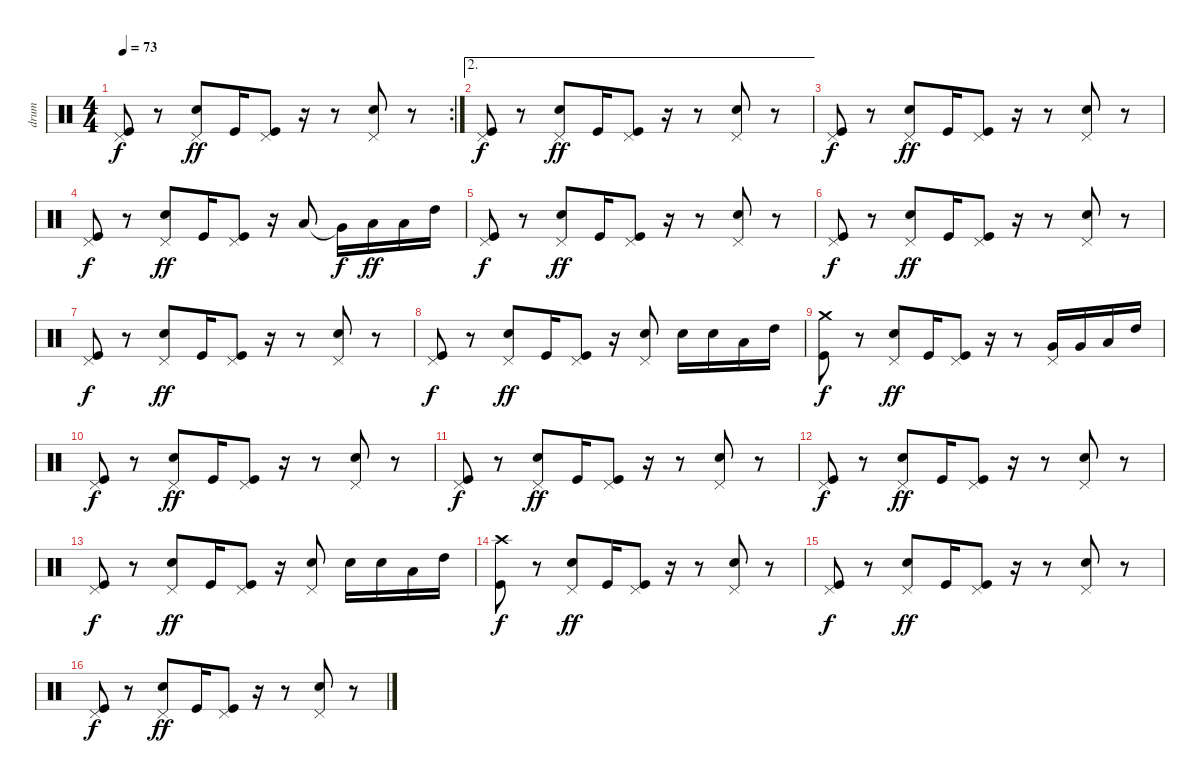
\track ("drum" "drum") {instrument percussion}
\staff {score}
\articulation defaults
\rc 2
\ts (4 4)
\tempo 73
\clef neutral
\ks c
("Pedal Hi-Hat (hit)" "Kick (hit)").8{dy f} r.8 ("Pedal Hi-Hat (hit)" "Snare (hit) 2").8{dy ff} "Kick (hit)".16 ("Pedal Hi-Hat (hit)" "Kick (hit)").8 r.16 r.8 ("Pedal Hi-Hat (hit)" "Snare (hit) 2").8 r.8 |
\ae 2
("Pedal Hi-Hat (hit)" "Kick (hit)").8{dy f} r.8 ("Pedal Hi-Hat (hit)" "Snare (hit) 2").8{dy ff} "Kick (hit)".16 ("Pedal Hi-Hat (hit)" "Kick (hit)").8 r.16 r.8 ("Pedal Hi-Hat (hit)" "Snare (hit) 2").8 r.8 |
("Pedal Hi-Hat (hit)" "Kick (hit)").8{dy f} r.8 ("Pedal Hi-Hat (hit)" "Snare (hit) 2").8{dy ff} "Kick (hit)".16 ("Pedal Hi-Hat (hit)" "Kick (hit)").8 r.16 r.8 ("Pedal Hi-Hat (hit)" "Snare (hit) 2").8 r.8 |
("Pedal Hi-Hat (hit)" "Kick (hit)").8{dy f} r.8 ("Pedal Hi-Hat (hit)" "Snare (hit) 2").8{dy ff} "Kick (hit)".16 ("Pedal Hi-Hat (hit)" "Kick (hit)").8 r.16 "Low Tom (hit)".8 "Very Low Tom (hit)"{t}.16{dy f} "Low Tom (hit)".16{dy ff} "Low Tom (hit)".16 "High Tom (hit)".16 |
("Pedal Hi-Hat (hit)" "Kick (hit)").8{dy f} r.8 ("Pedal Hi-Hat (hit)" "Snare (hit) 2").8{dy ff} "Kick (hit)".16 ("Pedal Hi-Hat (hit)" "Kick (hit)").8 r.16 r.8 ("Pedal Hi-Hat (hit)" "Snare (hit) 2").8 r.8 |
("Pedal Hi-Hat (hit)" "Kick (hit)").8{dy f} r.8 ("Pedal Hi-Hat (hit)" "Snare (hit) 2").8{dy ff} "Kick (hit)".16 ("Pedal Hi-Hat (hit)" "Kick (hit)").8 r.16 r.8 ("Pedal Hi-Hat (hit)" "Snare (hit) 2").8 r.8 |
("Pedal Hi-Hat (hit)" "Kick (hit)").8{dy f} r.8 ("Pedal Hi-Hat (hit)" "Snare (hit) 2").8{dy ff} "Kick (hit)".16 ("Pedal Hi-Hat (hit)" "Kick (hit)").8 r.16 r.8 ("Pedal Hi-Hat (hit)" "Snare (hit) 2").8 r.8 |
("Pedal Hi-Hat (hit)" "Kick (hit)").8{dy f} r.8 ("Pedal Hi-Hat (hit)" "Snare (hit) 2").8{dy ff} "Kick (hit)".16 ("Pedal Hi-Hat (hit)" "Kick (hit)").8 r.16 ("Pedal Hi-Hat (hit)" "Snare (hit) 2").8 "Snare (hit) 2".16 "Snare (hit) 2".16 "Low Tom (hit)".16 "High Tom (hit)".16 |
("Crash medium (hit)" "Kick (hit)").8{dy f} r.8 ("Pedal Hi-Hat (hit)" "Snare (hit) 2").8{dy ff} "Kick (hit)".16 ("Pedal Hi-Hat (hit)" "Kick (hit)").8 r.16 r.8 ("Pedal Hi-Hat (hit)" "Very Low Tom (hit)").16 "Very Low Tom (hit)".16 "Low Tom (hit)".16 "High Tom (hit)".16 |
("Pedal Hi-Hat (hit)" "Kick (hit)").8{dy f} r.8 ("Pedal Hi-Hat (hit)" "Snare (hit) 2").8{dy ff} "Kick (hit)".16 ("Pedal Hi-Hat (hit)" "Kick (hit)").8 r.16 r.8 ("Pedal Hi-Hat (hit)" "Snare (hit) 2").8 r.8 |
("Pedal Hi-Hat (hit)" "Kick (hit)").8{dy f} r.8 ("Pedal Hi-Hat (hit)" "Snare (hit) 2").8{dy ff} "Kick (hit)".16 ("Pedal Hi-Hat (hit)" "Kick (hit)").8 r.16 r.8 ("Pedal Hi-Hat (hit)" "Snare (hit) 2").8 r.8 |
("Pedal Hi-Hat (hit)" "Kick (hit)").8{dy f} r.8 ("Pedal Hi-Hat (hit)" "Snare (hit) 2").8{dy ff} "Kick (hit)".16 ("Pedal Hi-Hat (hit)" "Kick (hit)").8 r.16 r.8 ("Pedal Hi-Hat (hit)" "Snare (hit) 2").8 r.8 |
("Pedal Hi-Hat (hit)" "Kick (hit)").8{dy f} r.8 ("Pedal Hi-Hat (hit)" "Snare (hit) 2").8{dy ff} "Kick (hit)".16 ("Pedal Hi-Hat (hit)" "Kick (hit)").8 r.16 ("Pedal Hi-Hat (hit)" "Snare (hit) 2").8 "Snare (hit) 2".16 "Snare (hit) 2".16 "Low Tom (hit)".16 "High Tom (hit)".16 |
("Crash high (hit)" "Kick (hit)").8{dy f} r.8 ("Pedal Hi-Hat (hit)" "Snare (hit) 2").8{dy ff} "Kick (hit)".16 ("Pedal Hi-Hat (hit)" "Kick (hit)").8 r.16 r.8 ("Pedal Hi-Hat (hit)" "Snare (hit) 2").8 r.8 |
("Pedal Hi-Hat (hit)" "Kick (hit)").8{dy f} r.8 ("Pedal Hi-Hat (hit)" "Snare (hit) 2").8{dy ff} "Kick (hit)".16 ("Pedal Hi-Hat (hit)" "Kick (hit)").8 r.16 r.8 ("Pedal Hi-Hat (hit)" "Snare (hit) 2").8 r.8 |
("Pedal Hi-Hat (hit)" "Kick (hit)").8{dy f} r.8 ("Pedal Hi-Hat (hit)" "Snare (hit) 2").8{dy ff} "Kick (hit)".16 ("Pedal Hi-Hat (hit)" "Kick (hit)").8 r.16 r.8 ("Pedal Hi-Hat (hit)" "Snare (hit) 2").8 r.8
